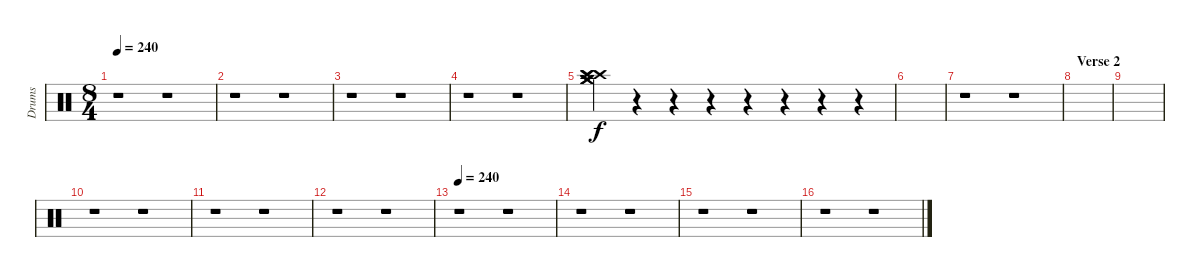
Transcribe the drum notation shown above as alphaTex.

\track ("Drums" "Drums") {instrument percussion}
\staff {score}
\articulation defaults
\ts (8 4)
\tempo 240
\clef neutral
\ks c
r.1{dy f} r.1 |
r.1 r.1 |
r.1 r.1 |
r.1 r.1 |
("Crash high (hit)" "Crash high (hit)" "Crash high (hit)" "Crash medium (hit)" "Crash medium (hit)" "Crash medium (hit)").4 r.4 r.4 r.4 r.4 r.4 r.4 r.4 |
|
r.1 r.1 |
\section ("" "Verse 2")
|
|
r.1 r.1 |
r.1 r.1 |
r.1 r.1 |
\tempo 240
r.1 r.1 |
r.1 r.1 |
r.1 r.1 |
r.1 r.1
